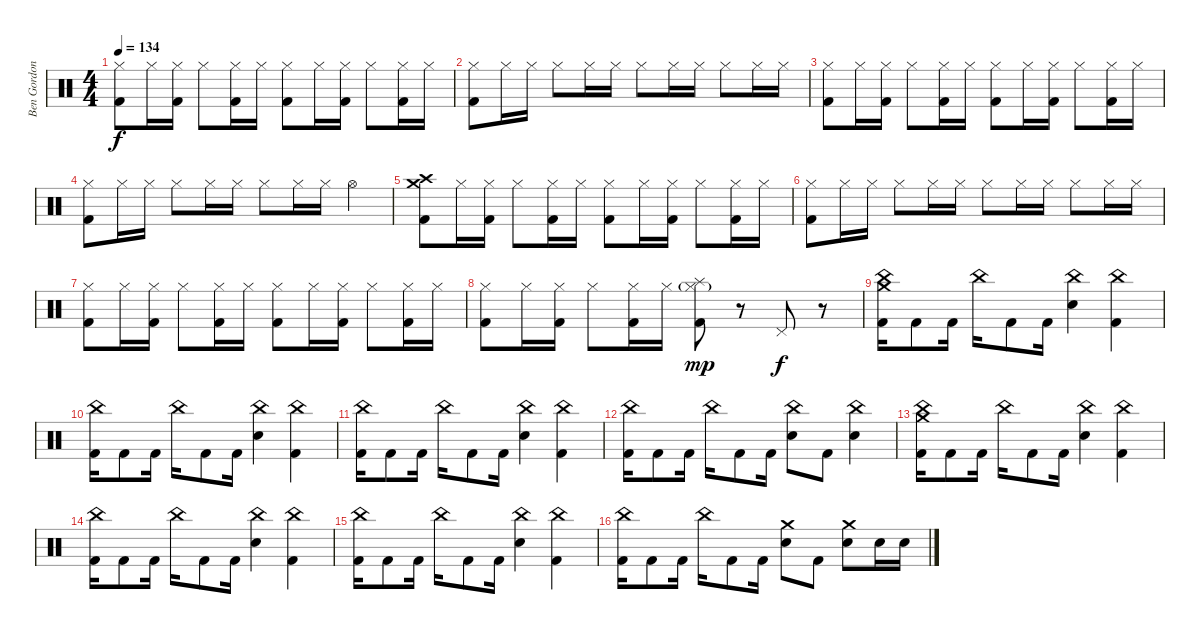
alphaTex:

\track ("Ben Gordon" "Ben Gordon") {instrument percussion}
\staff {score}
\articulation defaults
\ts (4 4)
\tempo 134
\clef neutral
\ks c
("Hi-Hat (closed)" "Kick (hit) 2").8{dy f} "Hi-Hat (closed)".16 ("Hi-Hat (closed)" "Kick (hit) 2").16 "Hi-Hat (closed)".8 ("Hi-Hat (closed)" "Kick (hit) 2").16 "Hi-Hat (closed)".16 ("Hi-Hat (closed)" "Kick (hit) 2").8 "Hi-Hat (closed)".16 ("Hi-Hat (closed)" "Kick (hit) 2").16 "Hi-Hat (closed)".8 ("Hi-Hat (closed)" "Kick (hit) 2").16 "Hi-Hat (closed)".16 |
("Hi-Hat (closed)" "Kick (hit) 2").8 "Hi-Hat (closed)".16 "Hi-Hat (closed)".16 "Hi-Hat (closed)".8 "Hi-Hat (closed)".16 "Hi-Hat (closed)".16 "Hi-Hat (closed)".8 "Hi-Hat (closed)".16 "Hi-Hat (closed)".16 "Hi-Hat (closed)".8 "Hi-Hat (closed)".16 "Hi-Hat (closed)".16 |
("Hi-Hat (closed)" "Kick (hit) 2").8 "Hi-Hat (closed)".16 ("Hi-Hat (closed)" "Kick (hit) 2").16 "Hi-Hat (closed)".8 ("Hi-Hat (closed)" "Kick (hit) 2").16 "Hi-Hat (closed)".16 ("Hi-Hat (closed)" "Kick (hit) 2").8 "Hi-Hat (closed)".16 ("Hi-Hat (closed)" "Kick (hit) 2").16 "Hi-Hat (closed)".8 ("Hi-Hat (closed)" "Kick (hit) 2").16 "Hi-Hat (closed)".16 |
("Hi-Hat (closed)" "Kick (hit) 2").8 "Hi-Hat (closed)".16 "Hi-Hat (closed)".16 "Hi-Hat (closed)".8 "Hi-Hat (closed)".16 "Hi-Hat (closed)".16 "Hi-Hat (closed)".8 "Hi-Hat (closed)".16 "Hi-Hat (closed)".16 "Hi-Hat (open)".4 |
("Crash medium (hit)" "Crash high (hit)" "Kick (hit) 2").8 "Hi-Hat (closed)".16 ("Hi-Hat (closed)" "Kick (hit) 2").16 "Hi-Hat (closed)".8 ("Hi-Hat (closed)" "Kick (hit) 2").16 "Hi-Hat (closed)".16 ("Hi-Hat (closed)" "Kick (hit) 2").8 "Hi-Hat (closed)".16 ("Hi-Hat (closed)" "Kick (hit) 2").16 "Hi-Hat (closed)".8 ("Hi-Hat (closed)" "Kick (hit) 2").16 "Hi-Hat (closed)".16 |
("Hi-Hat (closed)" "Kick (hit) 2").8 "Hi-Hat (closed)".16 "Hi-Hat (closed)".16 "Hi-Hat (closed)".8 "Hi-Hat (closed)".16 "Hi-Hat (closed)".16 "Hi-Hat (closed)".8 "Hi-Hat (closed)".16 "Hi-Hat (closed)".16 "Hi-Hat (closed)".8 "Hi-Hat (closed)".16 "Hi-Hat (closed)".16 |
("Hi-Hat (closed)" "Kick (hit) 2").8 "Hi-Hat (closed)".16 ("Hi-Hat (closed)" "Kick (hit) 2").16 "Hi-Hat (closed)".8 ("Hi-Hat (closed)" "Kick (hit) 2").16 "Hi-Hat (closed)".16 ("Hi-Hat (closed)" "Kick (hit) 2").8 "Hi-Hat (closed)".16 ("Hi-Hat (closed)" "Kick (hit) 2").16 "Hi-Hat (closed)".8 ("Hi-Hat (closed)" "Kick (hit) 2").16 "Hi-Hat (closed)".16 |
("Hi-Hat (closed)" "Kick (hit) 2").8 "Hi-Hat (closed)".16 ("Hi-Hat (closed)" "Kick (hit) 2").16 "Hi-Hat (closed)".8 ("Hi-Hat (closed)" "Kick (hit) 2").16 "Hi-Hat (closed)".16 ("Splash (hit)" "Hi-Hat (closed)"{g} "Kick (hit) 2").8{dy mp} r.8 "Pedal Hi-Hat (hit)".8{dy f} r.8 |
("China (hit)" "Crash medium (hit)" "Kick (hit) 2").16 "Kick (hit) 2".8 "Kick (hit) 2".16 "China (hit)".16 "Kick (hit) 2".8 "Kick (hit) 2".16 ("China (hit)" "Electric Snare (hit)").4 ("China (hit)" "Kick (hit) 2").4 |
("China (hit)" "Kick (hit) 2").16 "Kick (hit) 2".8 "Kick (hit) 2".16 "China (hit)".16 "Kick (hit) 2".8 "Kick (hit) 2".16 ("China (hit)" "Electric Snare (hit)").4 ("China (hit)" "Kick (hit) 2").4 |
("China (hit)" "Kick (hit) 2").16 "Kick (hit) 2".8 "Kick (hit) 2".16 "China (hit)".16 "Kick (hit) 2".8 "Kick (hit) 2".16 ("China (hit)" "Electric Snare (hit)").4 ("China (hit)" "Kick (hit) 2").4 |
("China (hit)" "Kick (hit) 2").16 "Kick (hit) 2".8 "Kick (hit) 2".16 "China (hit)".16 "Kick (hit) 2".8 "Kick (hit) 2".16 ("China (hit)" "Electric Snare (hit)").8 "Kick (hit) 2".8 ("China (hit)" "Electric Snare (hit)").4 |
("China (hit)" "Crash medium (hit)" "Kick (hit) 2").16 "Kick (hit) 2".8 "Kick (hit) 2".16 "China (hit)".16 "Kick (hit) 2".8 "Kick (hit) 2".16 ("China (hit)" "Electric Snare (hit)").4 ("China (hit)" "Kick (hit) 2").4 |
("China (hit)" "Kick (hit) 2").16 "Kick (hit) 2".8 "Kick (hit) 2".16 "China (hit)".16 "Kick (hit) 2".8 "Kick (hit) 2".16 ("China (hit)" "Electric Snare (hit)").4 ("China (hit)" "Kick (hit) 2").4 |
("China (hit)" "Kick (hit) 2").16 "Kick (hit) 2".8 "Kick (hit) 2".16 "China (hit)".16 "Kick (hit) 2".8 "Kick (hit) 2".16 ("China (hit)" "Electric Snare (hit)").4 ("China (hit)" "Kick (hit) 2").4 |
("China (hit)" "Kick (hit) 2").16 "Kick (hit) 2".8 "Kick (hit) 2".16 "China (hit)".16 "Kick (hit) 2".8 "Kick (hit) 2".16 ("Crash medium (hit)" "Electric Snare (hit)").8 "Kick (hit) 2".8 ("Crash medium (hit)" "Electric Snare (hit)").8 "Electric Snare (hit)".16 "Electric Snare (hit)".16
